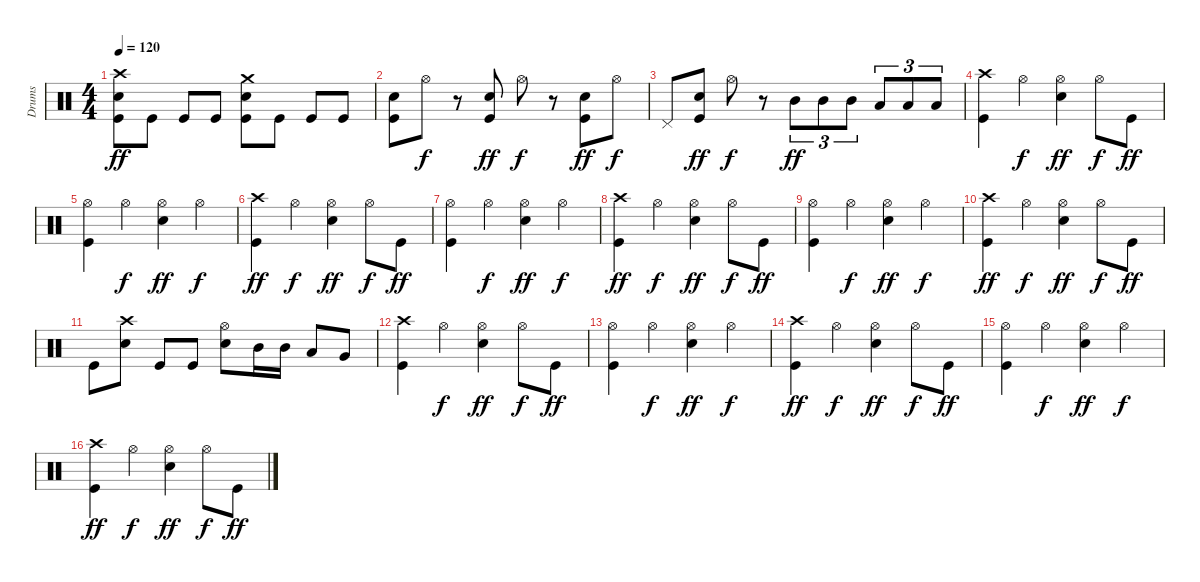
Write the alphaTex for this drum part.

\track ("Drums" "Drums") {instrument percussion}
\staff {score}
\articulation defaults
\ts (4 4)
\tempo 120
\clef neutral
\ks c
("Crash high (hit)" "Electric Snare (hit)" "Kick (hit)").8{dy ff} "Kick (hit)".8 "Kick (hit)".8 "Kick (hit)".8 ("Crash medium (hit)" "Electric Snare (hit)" "Kick (hit)").8 "Kick (hit)".8 "Kick (hit)".8 "Kick (hit)".8 |
("Electric Snare (hit)" "Kick (hit)").8 "Hi-Hat (open)".8{dy f} r.8 ("Electric Snare (hit)" "Kick (hit)").8{dy ff} "Hi-Hat (open)".8{dy f} r.8 ("Electric Snare (hit)" "Kick (hit)").8{dy ff} "Hi-Hat (open)".8{dy f} |
"Pedal Hi-Hat (hit)".8 ("Electric Snare (hit)" "Kick (hit)").8{dy ff} "Hi-Hat (open)".8{dy f} r.8 "Mid Tom (hit)".8{tu (3 2) dy ff} "Mid Tom (hit)".8{tu (3 2)} "Mid Tom (hit)".8{tu (3 2)} "Low Tom (hit)".8{tu (3 2)} "Low Tom (hit)".8{tu (3 2)} "Low Tom (hit)".8{tu (3 2)} |
("Crash high (hit)" "Kick (hit)").4 "Hi-Hat (open)".4{dy f} ("Hi-Hat (open)" "Electric Snare (hit)").4{dy ff} "Hi-Hat (open)".8{dy f} "Kick (hit)".8{dy ff} |
("Hi-Hat (open)" "Kick (hit)").4 "Hi-Hat (open)".4{dy f} ("Hi-Hat (open)" "Electric Snare (hit)").4{dy ff} "Hi-Hat (open)".4{dy f} |
("Crash high (hit)" "Kick (hit)").4{dy ff} "Hi-Hat (open)".4{dy f} ("Hi-Hat (open)" "Electric Snare (hit)").4{dy ff} "Hi-Hat (open)".8{dy f} "Kick (hit)".8{dy ff} |
("Hi-Hat (open)" "Kick (hit)").4 "Hi-Hat (open)".4{dy f} ("Hi-Hat (open)" "Electric Snare (hit)").4{dy ff} "Hi-Hat (open)".4{dy f} |
("Crash high (hit)" "Kick (hit)").4{dy ff} "Hi-Hat (open)".4{dy f} ("Hi-Hat (open)" "Electric Snare (hit)").4{dy ff} "Hi-Hat (open)".8{dy f} "Kick (hit)".8{dy ff} |
("Hi-Hat (open)" "Kick (hit)").4 "Hi-Hat (open)".4{dy f} ("Hi-Hat (open)" "Electric Snare (hit)").4{dy ff} "Hi-Hat (open)".4{dy f} |
("Crash high (hit)" "Kick (hit)").4{dy ff} "Hi-Hat (open)".4{dy f} ("Hi-Hat (open)" "Electric Snare (hit)").4{dy ff} "Hi-Hat (open)".8{dy f} "Kick (hit)".8{dy ff} |
"Kick (hit)".8 ("Crash high (hit)" "Electric Snare (hit)").8 "Kick (hit)".8 "Kick (hit)".8 ("Hi-Hat (open)" "Electric Snare (hit)").8 "Mid Tom (hit)".16 "Mid Tom (hit)".16 "Low Tom (hit)".8 "Very Low Tom (hit)".8 |
("Crash high (hit)" "Kick (hit)").4 "Hi-Hat (open)".4{dy f} ("Hi-Hat (open)" "Electric Snare (hit)").4{dy ff} "Hi-Hat (open)".8{dy f} "Kick (hit)".8{dy ff} |
("Hi-Hat (open)" "Kick (hit)").4 "Hi-Hat (open)".4{dy f} ("Hi-Hat (open)" "Electric Snare (hit)").4{dy ff} "Hi-Hat (open)".4{dy f} |
("Crash high (hit)" "Kick (hit)").4{dy ff} "Hi-Hat (open)".4{dy f} ("Hi-Hat (open)" "Electric Snare (hit)").4{dy ff} "Hi-Hat (open)".8{dy f} "Kick (hit)".8{dy ff} |
("Hi-Hat (open)" "Kick (hit)").4 "Hi-Hat (open)".4{dy f} ("Hi-Hat (open)" "Electric Snare (hit)").4{dy ff} "Hi-Hat (open)".4{dy f} |
("Crash high (hit)" "Kick (hit)").4{dy ff} "Hi-Hat (open)".4{dy f} ("Hi-Hat (open)" "Electric Snare (hit)").4{dy ff} "Hi-Hat (open)".8{dy f} "Kick (hit)".8{dy ff}
